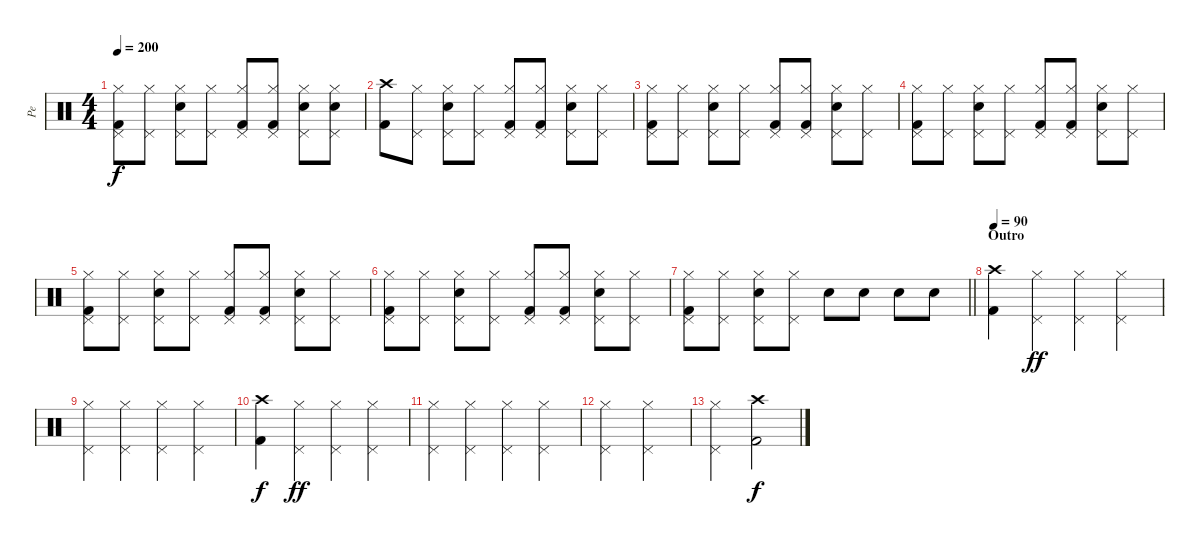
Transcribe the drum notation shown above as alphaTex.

\track ("Pe" "Pe") {instrument percussion}
\staff {score}
\articulation defaults
\ts (4 4)
\tempo 200
\clef neutral
\ks c
("Kick (hit) 2" "Hi-Hat (closed)" "Pedal Hi-Hat (hit)").8{dy f} ("Hi-Hat (closed)" "Pedal Hi-Hat (hit)").8 ("Electric Snare (hit)" "Hi-Hat (closed)" "Pedal Hi-Hat (hit)").8 ("Hi-Hat (closed)" "Pedal Hi-Hat (hit)").8 ("Kick (hit) 2" "Hi-Hat (closed)" "Pedal Hi-Hat (hit)").8 ("Kick (hit) 2" "Hi-Hat (closed)" "Pedal Hi-Hat (hit)").8 ("Electric Snare (hit)" "Hi-Hat (closed)" "Pedal Hi-Hat (hit)").8 ("Electric Snare (hit)" "Hi-Hat (closed)" "Pedal Hi-Hat (hit)").8 |
("Kick (hit) 2" "Crash high (hit)").8 ("Hi-Hat (closed)" "Pedal Hi-Hat (hit)").8 ("Electric Snare (hit)" "Hi-Hat (closed)" "Pedal Hi-Hat (hit)").8 ("Hi-Hat (closed)" "Pedal Hi-Hat (hit)").8 ("Kick (hit) 2" "Hi-Hat (closed)" "Pedal Hi-Hat (hit)").8 ("Kick (hit) 2" "Hi-Hat (closed)" "Pedal Hi-Hat (hit)").8 ("Electric Snare (hit)" "Hi-Hat (closed)" "Pedal Hi-Hat (hit)").8 ("Hi-Hat (closed)" "Pedal Hi-Hat (hit)").8 |
("Kick (hit) 2" "Hi-Hat (closed)" "Pedal Hi-Hat (hit)").8 ("Hi-Hat (closed)" "Pedal Hi-Hat (hit)").8 ("Electric Snare (hit)" "Hi-Hat (closed)" "Pedal Hi-Hat (hit)").8 ("Hi-Hat (closed)" "Pedal Hi-Hat (hit)").8 ("Kick (hit) 2" "Hi-Hat (closed)" "Pedal Hi-Hat (hit)").8 ("Kick (hit) 2" "Hi-Hat (closed)" "Pedal Hi-Hat (hit)").8 ("Electric Snare (hit)" "Hi-Hat (closed)" "Pedal Hi-Hat (hit)").8 ("Hi-Hat (closed)" "Pedal Hi-Hat (hit)").8 |
("Kick (hit) 2" "Hi-Hat (closed)" "Pedal Hi-Hat (hit)").8 ("Hi-Hat (closed)" "Pedal Hi-Hat (hit)").8 ("Electric Snare (hit)" "Hi-Hat (closed)" "Pedal Hi-Hat (hit)").8 ("Hi-Hat (closed)" "Pedal Hi-Hat (hit)").8 ("Kick (hit) 2" "Hi-Hat (closed)" "Pedal Hi-Hat (hit)").8 ("Kick (hit) 2" "Hi-Hat (closed)" "Pedal Hi-Hat (hit)").8 ("Electric Snare (hit)" "Hi-Hat (closed)" "Pedal Hi-Hat (hit)").8 ("Hi-Hat (closed)" "Pedal Hi-Hat (hit)").8 |
("Kick (hit) 2" "Hi-Hat (closed)" "Pedal Hi-Hat (hit)").8 ("Hi-Hat (closed)" "Pedal Hi-Hat (hit)").8 ("Electric Snare (hit)" "Hi-Hat (closed)" "Pedal Hi-Hat (hit)").8 ("Hi-Hat (closed)" "Pedal Hi-Hat (hit)").8 ("Kick (hit) 2" "Hi-Hat (closed)" "Pedal Hi-Hat (hit)").8 ("Kick (hit) 2" "Hi-Hat (closed)" "Pedal Hi-Hat (hit)").8 ("Electric Snare (hit)" "Hi-Hat (closed)" "Pedal Hi-Hat (hit)").8 ("Hi-Hat (closed)" "Pedal Hi-Hat (hit)").8 |
("Kick (hit) 2" "Hi-Hat (closed)" "Pedal Hi-Hat (hit)").8 ("Hi-Hat (closed)" "Pedal Hi-Hat (hit)").8 ("Electric Snare (hit)" "Hi-Hat (closed)" "Pedal Hi-Hat (hit)").8 ("Hi-Hat (closed)" "Pedal Hi-Hat (hit)").8 ("Kick (hit) 2" "Hi-Hat (closed)" "Pedal Hi-Hat (hit)").8 ("Kick (hit) 2" "Hi-Hat (closed)" "Pedal Hi-Hat (hit)").8 ("Electric Snare (hit)" "Hi-Hat (closed)" "Pedal Hi-Hat (hit)").8 ("Hi-Hat (closed)" "Pedal Hi-Hat (hit)").8 |
\barLineRight lightlight
("Kick (hit) 2" "Hi-Hat (closed)" "Pedal Hi-Hat (hit)").8 ("Hi-Hat (closed)" "Pedal Hi-Hat (hit)").8 ("Electric Snare (hit)" "Hi-Hat (closed)" "Pedal Hi-Hat (hit)").8 ("Hi-Hat (closed)" "Pedal Hi-Hat (hit)").8 "Electric Snare (hit)".8 "Electric Snare (hit)".8 "Electric Snare (hit)".8 "Electric Snare (hit)".8 |
\section ("" "Outro")
\tempo 90
("Kick (hit) 2" "Crash high (hit)").4 ("Hi-Hat (closed)" "Pedal Hi-Hat (hit)").4{dy ff} ("Hi-Hat (closed)" "Pedal Hi-Hat (hit)").4 ("Hi-Hat (closed)" "Pedal Hi-Hat (hit)").4 |
("Hi-Hat (closed)" "Pedal Hi-Hat (hit)").4 ("Hi-Hat (closed)" "Pedal Hi-Hat (hit)").4 ("Hi-Hat (closed)" "Pedal Hi-Hat (hit)").4 ("Hi-Hat (closed)" "Pedal Hi-Hat (hit)").4 |
("Kick (hit) 2" "Crash high (hit)").4{dy f} ("Hi-Hat (closed)" "Pedal Hi-Hat (hit)").4{dy ff} ("Hi-Hat (closed)" "Pedal Hi-Hat (hit)").4 ("Hi-Hat (closed)" "Pedal Hi-Hat (hit)").4 |
("Hi-Hat (closed)" "Pedal Hi-Hat (hit)").4 ("Hi-Hat (closed)" "Pedal Hi-Hat (hit)").4 ("Hi-Hat (closed)" "Pedal Hi-Hat (hit)").4 ("Hi-Hat (closed)" "Pedal Hi-Hat (hit)").4 |
("Hi-Hat (closed)" "Pedal Hi-Hat (hit)").2 ("Hi-Hat (closed)" "Pedal Hi-Hat (hit)").2 |
("Hi-Hat (closed)" "Pedal Hi-Hat (hit)").2 ("Kick (hit) 2" "Crash high (hit)").2{dy f}
